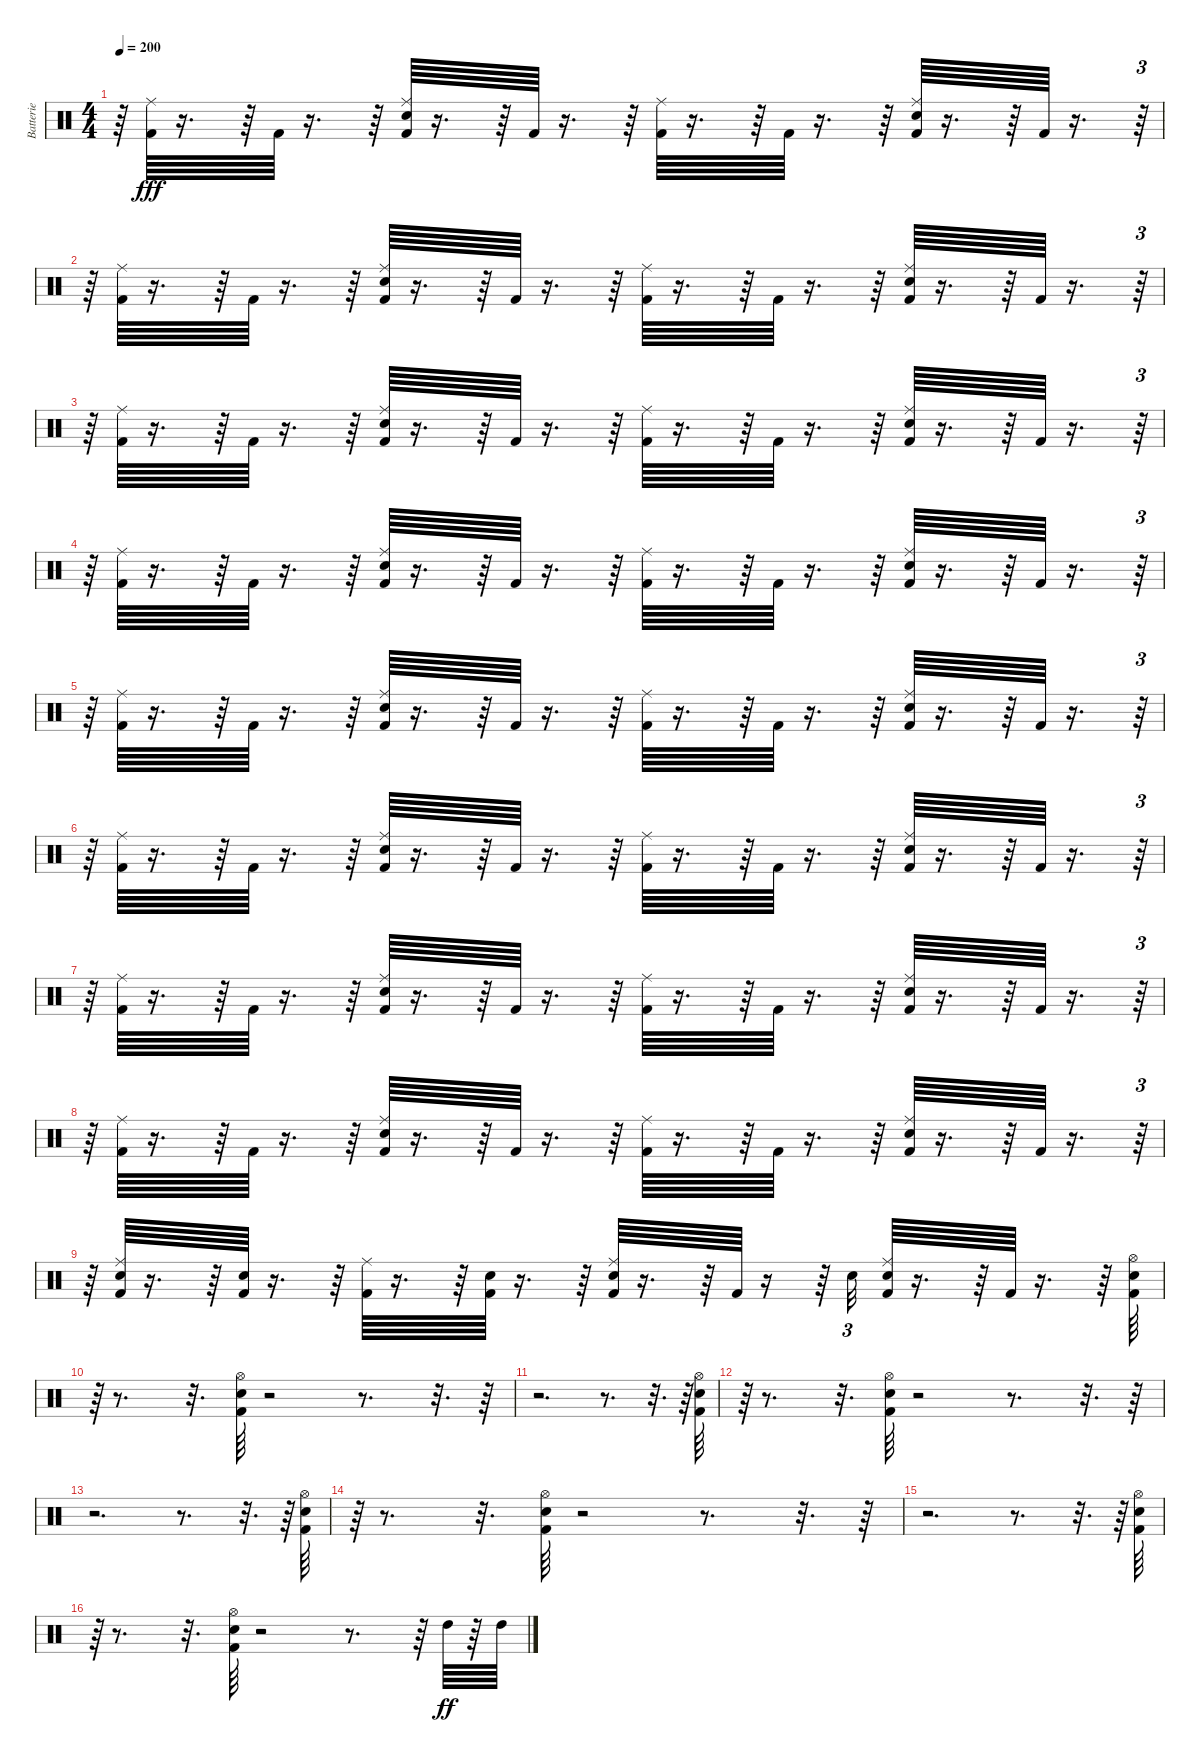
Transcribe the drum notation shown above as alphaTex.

\track ("Batterie" "Batterie") {instrument percussion}
\staff {score}
\articulation defaults
\ts (4 4)
\tempo 200
\clef neutral
\ks c
r.64{dy fff} ("Kick (hit) 2" "Ride (middle)").64 r.16{d} r.64 "Kick (hit) 2".64 r.16{d} r.64 ("Kick (hit) 2" "Snare (hit) 2" "Ride (middle)").64 r.16{d} r.64 "Kick (hit) 2".64 r.16{d} r.64 ("Kick (hit) 2" "Ride (middle)").64 r.16{d} r.64 "Kick (hit) 2".64 r.16{d} r.64 ("Kick (hit) 2" "Snare (hit) 2" "Ride (middle)").64 r.16{d} r.64 "Kick (hit) 2".64 r.16{d} r.64{tu (3 2)} |
r.64 ("Kick (hit) 2" "Ride (middle)").64 r.16{d} r.64 "Kick (hit) 2".64 r.16{d} r.64 ("Kick (hit) 2" "Snare (hit) 2" "Ride (middle)").64 r.16{d} r.64 "Kick (hit) 2".64 r.16{d} r.64 ("Kick (hit) 2" "Ride (middle)").64 r.16{d} r.64 "Kick (hit) 2".64 r.16{d} r.64 ("Kick (hit) 2" "Snare (hit) 2" "Ride (middle)").64 r.16{d} r.64 "Kick (hit) 2".64 r.16{d} r.64{tu (3 2)} |
r.64 ("Kick (hit) 2" "Ride (middle)").64 r.16{d} r.64 "Kick (hit) 2".64 r.16{d} r.64 ("Kick (hit) 2" "Snare (hit) 2" "Ride (middle)").64 r.16{d} r.64 "Kick (hit) 2".64 r.16{d} r.64 ("Kick (hit) 2" "Ride (middle)").64 r.16{d} r.64 "Kick (hit) 2".64 r.16{d} r.64 ("Kick (hit) 2" "Snare (hit) 2" "Ride (middle)").64 r.16{d} r.64 "Kick (hit) 2".64 r.16{d} r.64{tu (3 2)} |
r.64 ("Kick (hit) 2" "Ride (middle)").64 r.16{d} r.64 "Kick (hit) 2".64 r.16{d} r.64 ("Kick (hit) 2" "Snare (hit) 2" "Ride (middle)").64 r.16{d} r.64 "Kick (hit) 2".64 r.16{d} r.64 ("Kick (hit) 2" "Ride (middle)").64 r.16{d} r.64 "Kick (hit) 2".64 r.16{d} r.64 ("Kick (hit) 2" "Snare (hit) 2" "Ride (middle)").64 r.16{d} r.64 "Kick (hit) 2".64 r.16{d} r.64{tu (3 2)} |
r.64 ("Kick (hit) 2" "Ride (middle)").64 r.16{d} r.64 "Kick (hit) 2".64 r.16{d} r.64 ("Kick (hit) 2" "Snare (hit) 2" "Ride (middle)").64 r.16{d} r.64 "Kick (hit) 2".64 r.16{d} r.64 ("Kick (hit) 2" "Ride (middle)").64 r.16{d} r.64 "Kick (hit) 2".64 r.16{d} r.64 ("Kick (hit) 2" "Snare (hit) 2" "Ride (middle)").64 r.16{d} r.64 "Kick (hit) 2".64 r.16{d} r.64{tu (3 2)} |
r.64 ("Kick (hit) 2" "Ride (middle)").64 r.16{d} r.64 "Kick (hit) 2".64 r.16{d} r.64 ("Kick (hit) 2" "Snare (hit) 2" "Ride (middle)").64 r.16{d} r.64 "Kick (hit) 2".64 r.16{d} r.64 ("Kick (hit) 2" "Ride (middle)").64 r.16{d} r.64 "Kick (hit) 2".64 r.16{d} r.64 ("Kick (hit) 2" "Snare (hit) 2" "Ride (middle)").64 r.16{d} r.64 "Kick (hit) 2".64 r.16{d} r.64{tu (3 2)} |
r.64 ("Kick (hit) 2" "Ride (middle)").64 r.16{d} r.64 "Kick (hit) 2".64 r.16{d} r.64 ("Kick (hit) 2" "Snare (hit) 2" "Ride (middle)").64 r.16{d} r.64 "Kick (hit) 2".64 r.16{d} r.64 ("Kick (hit) 2" "Ride (middle)").64 r.16{d} r.64 "Kick (hit) 2".64 r.16{d} r.64 ("Kick (hit) 2" "Snare (hit) 2" "Ride (middle)").64 r.16{d} r.64 "Kick (hit) 2".64 r.16{d} r.64{tu (3 2)} |
r.64 ("Kick (hit) 2" "Ride (middle)").64 r.16{d} r.64 "Kick (hit) 2".64 r.16{d} r.64 ("Kick (hit) 2" "Snare (hit) 2" "Ride (middle)").64 r.16{d} r.64 "Kick (hit) 2".64 r.16{d} r.64 ("Kick (hit) 2" "Ride (middle)").64 r.16{d} r.64 "Kick (hit) 2".64 r.16{d} r.64 ("Kick (hit) 2" "Snare (hit) 2" "Ride (middle)").64 r.16{d} r.64 "Kick (hit) 2".64 r.16{d} r.64{tu (3 2)} |
r.64 ("Kick (hit) 2" "Ride (middle)" "Snare (hit) 2").64 r.16{d} r.64 ("Kick (hit) 2" "Snare (hit) 2").64 r.16{d} r.64 ("Kick (hit) 2" "Ride (middle)").64 r.16{d} r.64 ("Kick (hit) 2" "Snare (hit) 2").64 r.16{d} r.64 ("Kick (hit) 2" "Ride (middle)" "Snare (hit) 2").64 r.16{d} r.64 "Kick (hit) 2".64 r.16 r.64 "Snare (hit) 2".32{tu (3 2)} ("Kick (hit) 2" "Snare (hit) 2" "Ride (middle)").64 r.16{d} r.64 "Kick (hit) 2".64 r.16{d} r.64 ("Snare (hit) 2" "Hi-Hat (open)" "Kick (hit) 2").64 |
r.64{tu (3 2)} r.8{d} r.32{d} ("Snare (hit) 2" "Hi-Hat (open)" "Kick (hit) 2").64 r.2 r.8{d} r.32{d} r.64 |
r.2{d} r.8{d} r.32{d} r.64{tu (3 2)} ("Snare (hit) 2" "Hi-Hat (open)" "Kick (hit) 2").64 |
r.64{tu (3 2)} r.8{d} r.32{d} ("Snare (hit) 2" "Hi-Hat (open)" "Kick (hit) 2").64 r.2 r.8{d} r.32{d} r.64 |
r.2{d} r.8{d} r.32{d} r.64{tu (3 2)} ("Snare (hit) 2" "Hi-Hat (open)" "Kick (hit) 2").64 |
r.64{tu (3 2)} r.8{d} r.32{d} ("Snare (hit) 2" "Hi-Hat (open)" "Kick (hit) 2").64 r.2 r.8{d} r.32{d} r.64 |
r.2{d} r.8{d} r.32{d} r.64{tu (3 2)} ("Kick (hit) 2" "Snare (hit) 2" "Hi-Hat (open)").64 |
r.64{tu (3 2)} r.8{d} r.32{d} ("Kick (hit) 2" "Snare (hit) 2" "Hi-Hat (open)").64 r.2 r.8{d} r.64 "High Tom (hit)".64{dy ff} r.64 "High Tom (hit)".64
